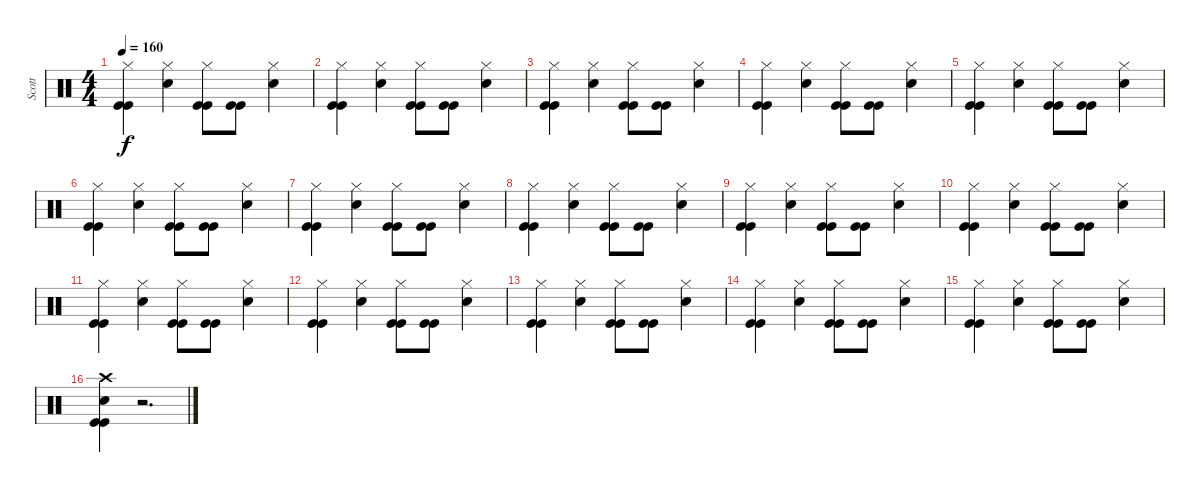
\track ("Scott" "Scott") {instrument percussion}
\staff {score}
\articulation defaults
\ts (4 4)
\tempo 160
\clef neutral
\ks c
("Hi-Hat (closed)" "Kick (hit)" "Kick (hit)").4{dy f} ("Hi-Hat (closed)" "Snare (hit) 2").4 ("Hi-Hat (closed)" "Kick (hit)" "Kick (hit)").8 ("Kick (hit)" "Kick (hit)").8 ("Hi-Hat (closed)" "Snare (hit) 2").4 |
("Hi-Hat (closed)" "Kick (hit)" "Kick (hit)").4 ("Hi-Hat (closed)" "Snare (hit) 2").4 ("Hi-Hat (closed)" "Kick (hit)" "Kick (hit)").8 ("Kick (hit)" "Kick (hit)").8 ("Hi-Hat (closed)" "Snare (hit) 2").4 |
("Hi-Hat (closed)" "Kick (hit)" "Kick (hit)").4 ("Hi-Hat (closed)" "Snare (hit) 2").4 ("Hi-Hat (closed)" "Kick (hit)" "Kick (hit)").8 ("Kick (hit)" "Kick (hit)").8 ("Hi-Hat (closed)" "Snare (hit) 2").4 |
("Hi-Hat (closed)" "Kick (hit)" "Kick (hit)").4 ("Hi-Hat (closed)" "Snare (hit) 2").4 ("Hi-Hat (closed)" "Kick (hit)" "Kick (hit)").8 ("Kick (hit)" "Kick (hit)").8 ("Hi-Hat (closed)" "Snare (hit) 2").4 |
("Hi-Hat (closed)" "Kick (hit)" "Kick (hit)").4 ("Hi-Hat (closed)" "Snare (hit) 2").4 ("Hi-Hat (closed)" "Kick (hit)" "Kick (hit)").8 ("Kick (hit)" "Kick (hit)").8 ("Hi-Hat (closed)" "Snare (hit) 2").4 |
("Hi-Hat (closed)" "Kick (hit)" "Kick (hit)").4 ("Hi-Hat (closed)" "Snare (hit) 2").4 ("Hi-Hat (closed)" "Kick (hit)" "Kick (hit)").8 ("Kick (hit)" "Kick (hit)").8 ("Hi-Hat (closed)" "Snare (hit) 2").4 |
("Hi-Hat (closed)" "Kick (hit)" "Kick (hit)").4 ("Hi-Hat (closed)" "Snare (hit) 2").4 ("Hi-Hat (closed)" "Kick (hit)" "Kick (hit)").8 ("Kick (hit)" "Kick (hit)").8 ("Hi-Hat (closed)" "Snare (hit) 2").4 |
("Hi-Hat (closed)" "Kick (hit)" "Kick (hit)").4 ("Hi-Hat (closed)" "Snare (hit) 2").4 ("Hi-Hat (closed)" "Kick (hit)" "Kick (hit)").8 ("Kick (hit)" "Kick (hit)").8 ("Hi-Hat (closed)" "Snare (hit) 2").4 |
("Hi-Hat (closed)" "Kick (hit)" "Kick (hit)").4 ("Hi-Hat (closed)" "Snare (hit) 2").4 ("Hi-Hat (closed)" "Kick (hit)" "Kick (hit)").8 ("Kick (hit)" "Kick (hit)").8 ("Hi-Hat (closed)" "Snare (hit) 2").4 |
("Hi-Hat (closed)" "Kick (hit)" "Kick (hit)").4 ("Hi-Hat (closed)" "Snare (hit) 2").4 ("Hi-Hat (closed)" "Kick (hit)" "Kick (hit)").8 ("Kick (hit)" "Kick (hit)").8 ("Hi-Hat (closed)" "Snare (hit) 2").4 |
("Hi-Hat (closed)" "Kick (hit)" "Kick (hit)").4 ("Hi-Hat (closed)" "Snare (hit) 2").4 ("Hi-Hat (closed)" "Kick (hit)" "Kick (hit)").8 ("Kick (hit)" "Kick (hit)").8 ("Hi-Hat (closed)" "Snare (hit) 2").4 |
("Hi-Hat (closed)" "Kick (hit)" "Kick (hit)").4 ("Hi-Hat (closed)" "Snare (hit) 2").4 ("Hi-Hat (closed)" "Kick (hit)" "Kick (hit)").8 ("Kick (hit)" "Kick (hit)").8 ("Hi-Hat (closed)" "Snare (hit) 2").4 |
("Hi-Hat (closed)" "Kick (hit)" "Kick (hit)").4 ("Hi-Hat (closed)" "Snare (hit) 2").4 ("Hi-Hat (closed)" "Kick (hit)" "Kick (hit)").8 ("Kick (hit)" "Kick (hit)").8 ("Hi-Hat (closed)" "Snare (hit) 2").4 |
("Hi-Hat (closed)" "Kick (hit)" "Kick (hit)").4 ("Hi-Hat (closed)" "Snare (hit) 2").4 ("Hi-Hat (closed)" "Kick (hit)" "Kick (hit)").8 ("Kick (hit)" "Kick (hit)").8 ("Hi-Hat (closed)" "Snare (hit) 2").4 |
("Hi-Hat (closed)" "Kick (hit)" "Kick (hit)").4 ("Hi-Hat (closed)" "Snare (hit) 2").4 ("Hi-Hat (closed)" "Kick (hit)" "Kick (hit)").8 ("Kick (hit)" "Kick (hit)").8 ("Hi-Hat (closed)" "Snare (hit) 2").4 |
("Crash high (hit)" "Snare (hit) 2" "Kick (hit)" "Kick (hit)").4 r.2{d}
